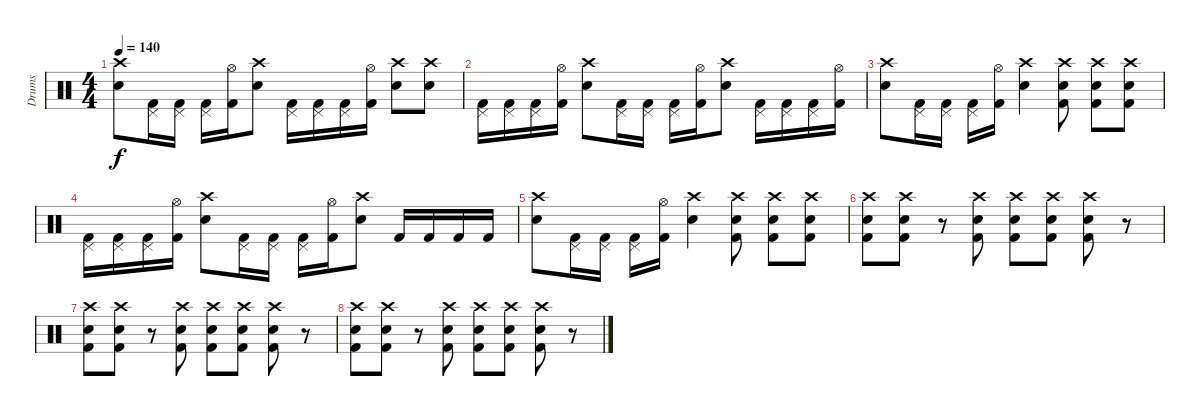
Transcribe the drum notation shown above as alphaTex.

\track ("Drums" "Drums") {instrument percussion}
\staff {score}
\articulation defaults
\ts (4 4)
\tempo 140
\clef neutral
\ks c
("Crash high (hit)" "Electric Snare (hit)").8{dy f} ("Pedal Hi-Hat (hit)" "Kick (hit) 2").16 ("Pedal Hi-Hat (hit)" "Kick (hit) 2").16 ("Pedal Hi-Hat (hit)" "Kick (hit) 2").16 ("Hi-Hat (open)" "Kick (hit) 2").16 ("Crash high (hit)" "Electric Snare (hit)").8 ("Pedal Hi-Hat (hit)" "Kick (hit) 2").16 ("Pedal Hi-Hat (hit)" "Kick (hit) 2").16 ("Pedal Hi-Hat (hit)" "Kick (hit) 2").16 ("Hi-Hat (open)" "Kick (hit) 2").16 ("Crash high (hit)" "Electric Snare (hit)").8 ("Crash high (hit)" "Electric Snare (hit)").8 |
("Pedal Hi-Hat (hit)" "Kick (hit) 2").16 ("Pedal Hi-Hat (hit)" "Kick (hit) 2").16 ("Pedal Hi-Hat (hit)" "Kick (hit) 2").16 ("Hi-Hat (open)" "Kick (hit) 2").16 ("Crash high (hit)" "Electric Snare (hit)").8 ("Pedal Hi-Hat (hit)" "Kick (hit) 2").16 ("Pedal Hi-Hat (hit)" "Kick (hit) 2").16 ("Pedal Hi-Hat (hit)" "Kick (hit) 2").16 ("Hi-Hat (open)" "Kick (hit) 2").16 ("Crash high (hit)" "Electric Snare (hit)").8 ("Pedal Hi-Hat (hit)" "Kick (hit) 2").16 ("Pedal Hi-Hat (hit)" "Kick (hit) 2").16 ("Pedal Hi-Hat (hit)" "Kick (hit) 2").16 ("Hi-Hat (open)" "Kick (hit) 2").16 |
("Crash high (hit)" "Electric Snare (hit)").8 ("Pedal Hi-Hat (hit)" "Kick (hit) 2").16 ("Pedal Hi-Hat (hit)" "Kick (hit) 2").16 ("Pedal Hi-Hat (hit)" "Kick (hit) 2").16 ("Hi-Hat (open)" "Kick (hit) 2").16 ("Crash high (hit)" "Electric Snare (hit)").4 ("Crash high (hit)" "Electric Snare (hit)" "Kick (hit) 2").8 ("Crash high (hit)" "Electric Snare (hit)" "Kick (hit) 2").8 ("Crash high (hit)" "Electric Snare (hit)" "Kick (hit) 2").8 |
("Pedal Hi-Hat (hit)" "Kick (hit) 2").16 ("Pedal Hi-Hat (hit)" "Kick (hit) 2").16 ("Pedal Hi-Hat (hit)" "Kick (hit) 2").16 ("Hi-Hat (open)" "Kick (hit) 2").16 ("Crash high (hit)" "Electric Snare (hit)").8 ("Pedal Hi-Hat (hit)" "Kick (hit) 2").16 ("Pedal Hi-Hat (hit)" "Kick (hit) 2").16 ("Pedal Hi-Hat (hit)" "Kick (hit) 2").16 ("Hi-Hat (open)" "Kick (hit) 2").16 ("Crash high (hit)" "Electric Snare (hit)").8 "Kick (hit) 2".16 "Kick (hit) 2".16 "Kick (hit) 2".16 "Kick (hit) 2".16 |
("Crash high (hit)" "Electric Snare (hit)").8 ("Pedal Hi-Hat (hit)" "Kick (hit) 2").16 ("Pedal Hi-Hat (hit)" "Kick (hit) 2").16 ("Pedal Hi-Hat (hit)" "Kick (hit) 2").16 ("Hi-Hat (open)" "Kick (hit) 2").16 ("Crash high (hit)" "Electric Snare (hit)").4 ("Crash high (hit)" "Electric Snare (hit)" "Kick (hit) 2").8 ("Crash high (hit)" "Electric Snare (hit)" "Kick (hit) 2").8 ("Crash high (hit)" "Electric Snare (hit)" "Kick (hit) 2").8 |
("Crash high (hit)" "Electric Snare (hit)" "Kick (hit) 2").8 ("Crash high (hit)" "Electric Snare (hit)" "Kick (hit) 2").8 r.8 ("Crash high (hit)" "Electric Snare (hit)" "Kick (hit) 2").8 ("Crash high (hit)" "Electric Snare (hit)" "Kick (hit) 2").8 ("Crash high (hit)" "Electric Snare (hit)" "Kick (hit) 2").8 ("Crash high (hit)" "Electric Snare (hit)" "Kick (hit) 2").8 r.8 |
("Crash high (hit)" "Electric Snare (hit)" "Kick (hit) 2").8 ("Crash high (hit)" "Electric Snare (hit)" "Kick (hit) 2").8 r.8 ("Crash high (hit)" "Electric Snare (hit)" "Kick (hit) 2").8 ("Crash high (hit)" "Electric Snare (hit)" "Kick (hit) 2").8 ("Crash high (hit)" "Electric Snare (hit)" "Kick (hit) 2").8 ("Crash high (hit)" "Electric Snare (hit)" "Kick (hit) 2").8 r.8 |
("Crash high (hit)" "Electric Snare (hit)" "Kick (hit) 2").8 ("Crash high (hit)" "Electric Snare (hit)" "Kick (hit) 2").8 r.8 ("Crash high (hit)" "Electric Snare (hit)" "Kick (hit) 2").8 ("Crash high (hit)" "Electric Snare (hit)" "Kick (hit) 2").8 ("Crash high (hit)" "Electric Snare (hit)" "Kick (hit) 2").8 ("Crash high (hit)" "Electric Snare (hit)" "Kick (hit) 2").8 r.8
